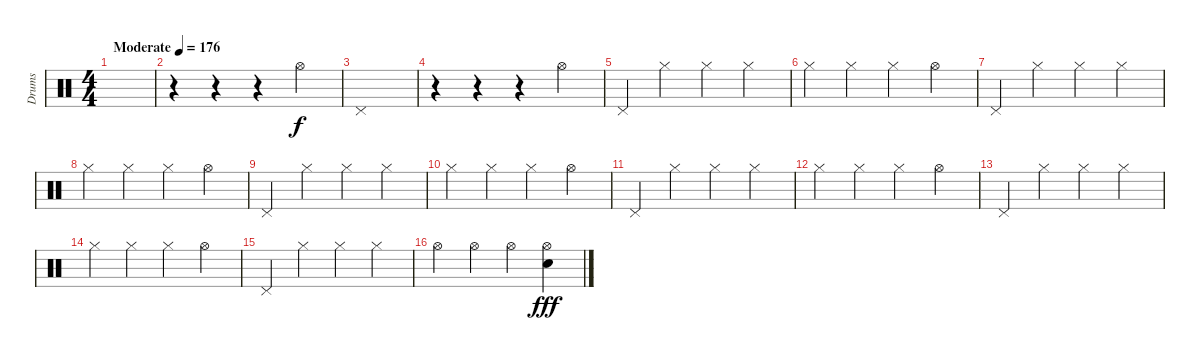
\track ("Drums" "Drums") {instrument percussion}
\staff {score}
\articulation defaults
\ts (4 4)
\tempo (176 "Moderate")
\clef neutral
\ks c
|
r.4 r.4 r.4 "Hi-Hat (open)".4 |
"Pedal Hi-Hat (hit)".1 |
r.4 r.4 r.4 "Hi-Hat (open)".4 |
"Pedal Hi-Hat (hit)".4 "Hi-Hat (closed)".4 "Hi-Hat (closed)".4 "Hi-Hat (closed)".4 |
"Hi-Hat (closed)".4 "Hi-Hat (closed)".4 "Hi-Hat (closed)".4 "Hi-Hat (open)".4 |
"Pedal Hi-Hat (hit)".4 "Hi-Hat (closed)".4 "Hi-Hat (closed)".4 "Hi-Hat (closed)".4 |
"Hi-Hat (closed)".4 "Hi-Hat (closed)".4 "Hi-Hat (closed)".4 "Hi-Hat (open)".4 |
"Pedal Hi-Hat (hit)".4 "Hi-Hat (closed)".4 "Hi-Hat (closed)".4 "Hi-Hat (closed)".4 |
"Hi-Hat (closed)".4 "Hi-Hat (closed)".4 "Hi-Hat (closed)".4 "Hi-Hat (open)".4 |
"Pedal Hi-Hat (hit)".4 "Hi-Hat (closed)".4 "Hi-Hat (closed)".4 "Hi-Hat (closed)".4 |
"Hi-Hat (closed)".4 "Hi-Hat (closed)".4 "Hi-Hat (closed)".4 "Hi-Hat (open)".4 |
"Pedal Hi-Hat (hit)".4 "Hi-Hat (closed)".4 "Hi-Hat (closed)".4 "Hi-Hat (closed)".4 |
"Hi-Hat (closed)".4 "Hi-Hat (closed)".4 "Hi-Hat (closed)".4 "Hi-Hat (open)".4 |
"Pedal Hi-Hat (hit)".4 "Hi-Hat (closed)".4 "Hi-Hat (closed)".4 "Hi-Hat (closed)".4 |
"Hi-Hat (open)".4 "Hi-Hat (open)".4 "Hi-Hat (open)".4 ("Hi-Hat (open)" "Electric Snare (hit)").4{dy fff}
